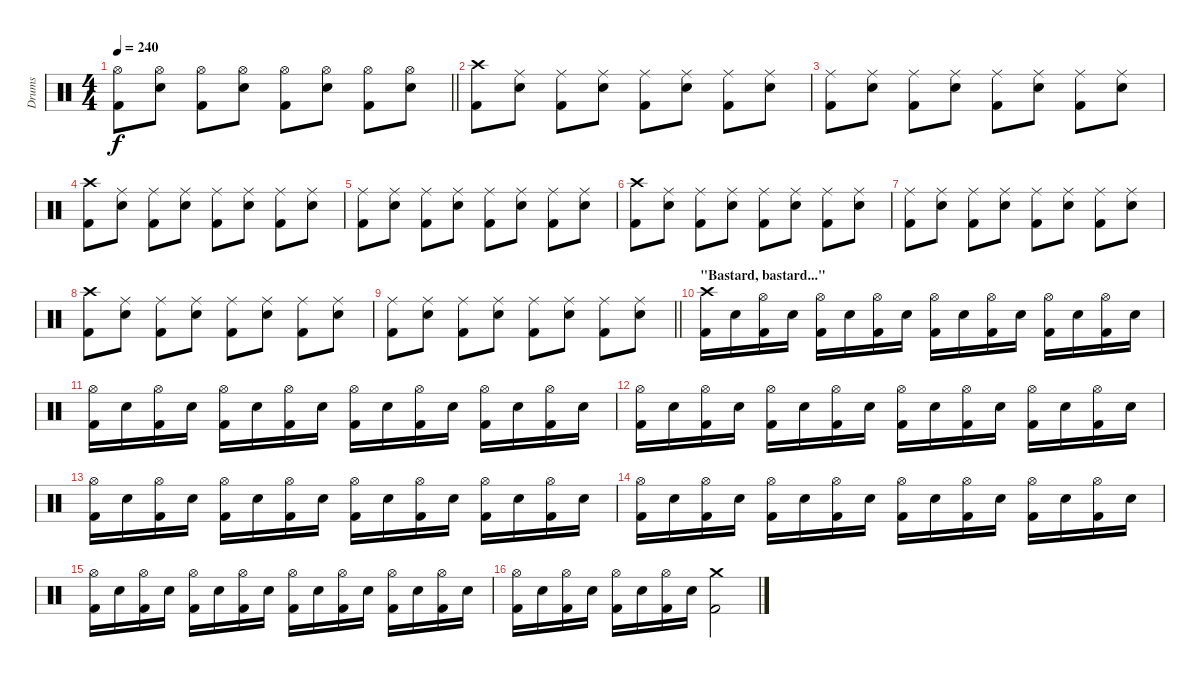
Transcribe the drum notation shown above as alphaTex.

\track ("Drums" "Drums") {instrument percussion}
\staff {score}
\articulation defaults
\ts (4 4)
\tempo 240
\clef neutral
\barLineRight lightlight
\ks c
("Hi-Hat (open)" "Kick (hit) 2").8{dy f} ("Hi-Hat (open)" "Electric Snare (hit)").8 ("Hi-Hat (open)" "Kick (hit) 2").8 ("Hi-Hat (open)" "Electric Snare (hit)").8 ("Hi-Hat (open)" "Kick (hit) 2").8 ("Hi-Hat (open)" "Electric Snare (hit)").8 ("Hi-Hat (open)" "Kick (hit) 2").8 ("Hi-Hat (open)" "Electric Snare (hit)").8 |
\section ("" "")
("Crash high (hit)" "Kick (hit) 2").8 ("Ride (middle)" "Electric Snare (hit)").8 ("Ride (middle)" "Kick (hit) 2").8 ("Ride (middle)" "Electric Snare (hit)").8 ("Ride (middle)" "Kick (hit) 2").8 ("Ride (middle)" "Electric Snare (hit)").8 ("Ride (middle)" "Kick (hit) 2").8 ("Ride (middle)" "Electric Snare (hit)").8 |
("Ride (middle)" "Kick (hit) 2").8 ("Ride (middle)" "Electric Snare (hit)").8 ("Ride (middle)" "Kick (hit) 2").8 ("Ride (middle)" "Electric Snare (hit)").8 ("Ride (middle)" "Kick (hit) 2").8 ("Ride (middle)" "Electric Snare (hit)").8 ("Ride (middle)" "Kick (hit) 2").8 ("Ride (middle)" "Electric Snare (hit)").8 |
("Crash high (hit)" "Kick (hit) 2").8 ("Ride (middle)" "Electric Snare (hit)").8 ("Ride (middle)" "Kick (hit) 2").8 ("Ride (middle)" "Electric Snare (hit)").8 ("Ride (middle)" "Kick (hit) 2").8 ("Ride (middle)" "Electric Snare (hit)").8 ("Ride (middle)" "Kick (hit) 2").8 ("Ride (middle)" "Electric Snare (hit)").8 |
("Ride (middle)" "Kick (hit) 2").8 ("Ride (middle)" "Electric Snare (hit)").8 ("Ride (middle)" "Kick (hit) 2").8 ("Ride (middle)" "Electric Snare (hit)").8 ("Ride (middle)" "Kick (hit) 2").8 ("Ride (middle)" "Electric Snare (hit)").8 ("Ride (middle)" "Kick (hit) 2").8 ("Ride (middle)" "Electric Snare (hit)").8 |
("Crash high (hit)" "Kick (hit) 2").8 ("Ride (middle)" "Electric Snare (hit)").8 ("Ride (middle)" "Kick (hit) 2").8 ("Ride (middle)" "Electric Snare (hit)").8 ("Ride (middle)" "Kick (hit) 2").8 ("Ride (middle)" "Electric Snare (hit)").8 ("Ride (middle)" "Kick (hit) 2").8 ("Ride (middle)" "Electric Snare (hit)").8 |
("Ride (middle)" "Kick (hit) 2").8 ("Ride (middle)" "Electric Snare (hit)").8 ("Ride (middle)" "Kick (hit) 2").8 ("Ride (middle)" "Electric Snare (hit)").8 ("Ride (middle)" "Kick (hit) 2").8 ("Ride (middle)" "Electric Snare (hit)").8 ("Ride (middle)" "Kick (hit) 2").8 ("Ride (middle)" "Electric Snare (hit)").8 |
("Crash high (hit)" "Kick (hit) 2").8 ("Ride (middle)" "Electric Snare (hit)").8 ("Ride (middle)" "Kick (hit) 2").8 ("Ride (middle)" "Electric Snare (hit)").8 ("Ride (middle)" "Kick (hit) 2").8 ("Ride (middle)" "Electric Snare (hit)").8 ("Ride (middle)" "Kick (hit) 2").8 ("Ride (middle)" "Electric Snare (hit)").8 |
\barLineRight lightlight
("Ride (middle)" "Kick (hit) 2").8 ("Ride (middle)" "Electric Snare (hit)").8 ("Ride (middle)" "Kick (hit) 2").8 ("Ride (middle)" "Electric Snare (hit)").8 ("Ride (middle)" "Kick (hit) 2").8 ("Ride (middle)" "Electric Snare (hit)").8 ("Ride (middle)" "Kick (hit) 2").8 ("Ride (middle)" "Electric Snare (hit)").8 |
\section ("" "\"Bastard, bastard...\"")
("Crash high (hit)" "Kick (hit) 2").16 "Electric Snare (hit)".16 ("Hi-Hat (open)" "Kick (hit) 2").16 "Electric Snare (hit)".16 ("Hi-Hat (open)" "Kick (hit) 2").16 "Electric Snare (hit)".16 ("Hi-Hat (open)" "Kick (hit) 2").16 "Electric Snare (hit)".16 ("Hi-Hat (open)" "Kick (hit) 2").16 "Electric Snare (hit)".16 ("Hi-Hat (open)" "Kick (hit) 2").16 "Electric Snare (hit)".16 ("Hi-Hat (open)" "Kick (hit) 2").16 "Electric Snare (hit)".16 ("Hi-Hat (open)" "Kick (hit) 2").16 "Electric Snare (hit)".16 |
("Hi-Hat (open)" "Kick (hit) 2").16 "Electric Snare (hit)".16 ("Hi-Hat (open)" "Kick (hit) 2").16 "Electric Snare (hit)".16 ("Hi-Hat (open)" "Kick (hit) 2").16 "Electric Snare (hit)".16 ("Hi-Hat (open)" "Kick (hit) 2").16 "Electric Snare (hit)".16 ("Hi-Hat (open)" "Kick (hit) 2").16 "Electric Snare (hit)".16 ("Hi-Hat (open)" "Kick (hit) 2").16 "Electric Snare (hit)".16 ("Hi-Hat (open)" "Kick (hit) 2").16 "Electric Snare (hit)".16 ("Hi-Hat (open)" "Kick (hit) 2").16 "Electric Snare (hit)".16 |
("Hi-Hat (open)" "Kick (hit) 2").16 "Electric Snare (hit)".16 ("Hi-Hat (open)" "Kick (hit) 2").16 "Electric Snare (hit)".16 ("Hi-Hat (open)" "Kick (hit) 2").16 "Electric Snare (hit)".16 ("Hi-Hat (open)" "Kick (hit) 2").16 "Electric Snare (hit)".16 ("Hi-Hat (open)" "Kick (hit) 2").16 "Electric Snare (hit)".16 ("Hi-Hat (open)" "Kick (hit) 2").16 "Electric Snare (hit)".16 ("Hi-Hat (open)" "Kick (hit) 2").16 "Electric Snare (hit)".16 ("Hi-Hat (open)" "Kick (hit) 2").16 "Electric Snare (hit)".16 |
("Hi-Hat (open)" "Kick (hit) 2").16 "Electric Snare (hit)".16 ("Hi-Hat (open)" "Kick (hit) 2").16 "Electric Snare (hit)".16 ("Hi-Hat (open)" "Kick (hit) 2").16 "Electric Snare (hit)".16 ("Hi-Hat (open)" "Kick (hit) 2").16 "Electric Snare (hit)".16 ("Hi-Hat (open)" "Kick (hit) 2").16 "Electric Snare (hit)".16 ("Hi-Hat (open)" "Kick (hit) 2").16 "Electric Snare (hit)".16 ("Hi-Hat (open)" "Kick (hit) 2").16 "Electric Snare (hit)".16 ("Hi-Hat (open)" "Kick (hit) 2").16 "Electric Snare (hit)".16 |
("Hi-Hat (open)" "Kick (hit) 2").16 "Electric Snare (hit)".16 ("Hi-Hat (open)" "Kick (hit) 2").16 "Electric Snare (hit)".16 ("Hi-Hat (open)" "Kick (hit) 2").16 "Electric Snare (hit)".16 ("Hi-Hat (open)" "Kick (hit) 2").16 "Electric Snare (hit)".16 ("Hi-Hat (open)" "Kick (hit) 2").16 "Electric Snare (hit)".16 ("Hi-Hat (open)" "Kick (hit) 2").16 "Electric Snare (hit)".16 ("Hi-Hat (open)" "Kick (hit) 2").16 "Electric Snare (hit)".16 ("Hi-Hat (open)" "Kick (hit) 2").16 "Electric Snare (hit)".16 |
("Hi-Hat (open)" "Kick (hit) 2").16 "Electric Snare (hit)".16 ("Hi-Hat (open)" "Kick (hit) 2").16 "Electric Snare (hit)".16 ("Hi-Hat (open)" "Kick (hit) 2").16 "Electric Snare (hit)".16 ("Hi-Hat (open)" "Kick (hit) 2").16 "Electric Snare (hit)".16 ("Hi-Hat (open)" "Kick (hit) 2").16 "Electric Snare (hit)".16 ("Hi-Hat (open)" "Kick (hit) 2").16 "Electric Snare (hit)".16 ("Hi-Hat (open)" "Kick (hit) 2").16 "Electric Snare (hit)".16 ("Hi-Hat (open)" "Kick (hit) 2").16 "Electric Snare (hit)".16 |
("Hi-Hat (open)" "Kick (hit) 2").16 "Electric Snare (hit)".16 ("Hi-Hat (open)" "Kick (hit) 2").16 "Electric Snare (hit)".16 ("Hi-Hat (open)" "Kick (hit) 2").16 "Electric Snare (hit)".16 ("Hi-Hat (open)" "Kick (hit) 2").16 "Electric Snare (hit)".16 ("Crash medium (hit)" "Kick (hit) 2").2
